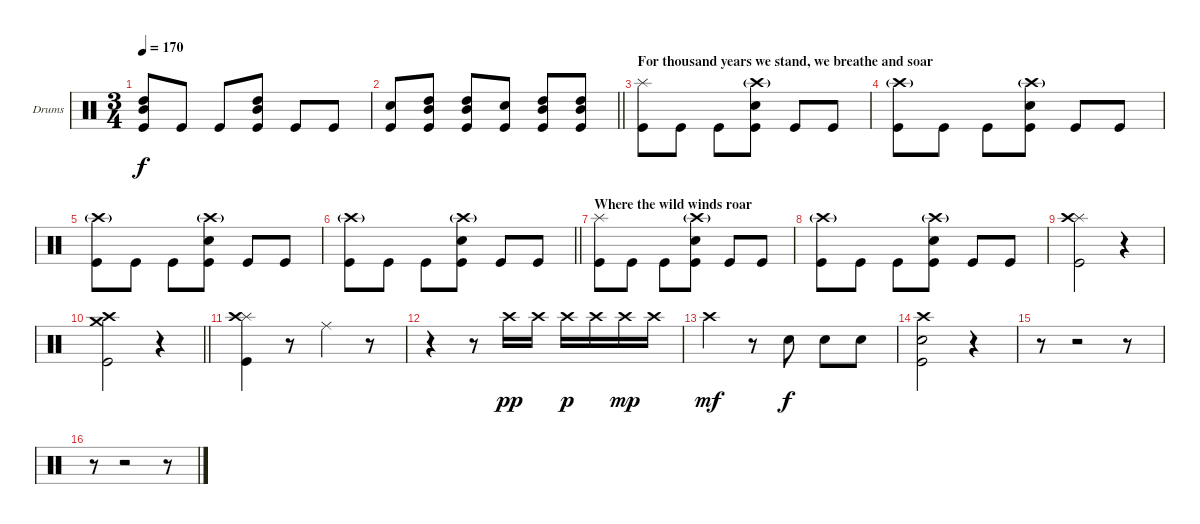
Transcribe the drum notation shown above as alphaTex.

\bracketExtendMode groupsimilarinstruments
\firstSystemTrackNameOrientation horizontal
\otherSystemsTrackNameOrientation horizontal
\track ("Drumkit" "Drums") {instrument percussion}
\staff {score}
\articulation defaults
\ts (3 4)
\tempo 170
\clef neutral
\ks c
("High Tom (hit)" "Mid Tom (hit)" "Kick (hit)").8{dy f} "Kick (hit)".8 "Kick (hit)".8 ("High Tom (hit)" "Mid Tom (hit)" "Kick (hit)").8 "Kick (hit)".8 "Kick (hit)".8 |
\barLineRight lightlight
("Snare (hit) 2" "Kick (hit)").8 ("High Tom (hit)" "Mid Tom (hit)" "Kick (hit)").8 ("High Tom (hit)" "Mid Tom (hit)" "Kick (hit)").8 ("Snare (hit) 2" "Kick (hit)").8 ("High Tom (hit)" "Mid Tom (hit)" "Kick (hit)").8 ("High Tom (hit)" "Mid Tom (hit)" "Kick (hit)").8 |
\section ("" "For thousand years we stand, we breathe and soar")
("Splash (hit)" "Kick (hit)").8 "Kick (hit)".8 "Kick (hit)".8 ("Crash high (hit)"{g} "Snare (hit) 2" "Kick (hit)").8 "Kick (hit)".8 "Kick (hit)".8 |
("Crash high (hit)"{g} "Kick (hit)").8 "Kick (hit)".8 "Kick (hit)".8 ("Crash high (hit)"{g} "Snare (hit) 2" "Kick (hit)").8 "Kick (hit)".8 "Kick (hit)".8 |
("Crash high (hit)"{g} "Kick (hit)").8 "Kick (hit)".8 "Kick (hit)".8 ("Crash high (hit)"{g} "Snare (hit) 2" "Kick (hit)").8 "Kick (hit)".8 "Kick (hit)".8 |
\barLineRight lightlight
("Crash high (hit)"{g} "Kick (hit)").8 "Kick (hit)".8 "Kick (hit)".8 ("Crash high (hit)"{g} "Snare (hit) 2" "Kick (hit)").8 "Kick (hit)".8 "Kick (hit)".8 |
\section ("" "Where the wild winds roar ")
("Splash (hit)" "Kick (hit)").8 "Kick (hit)".8 "Kick (hit)".8 ("Crash high (hit)"{g} "Snare (hit) 2" "Kick (hit)").8 "Kick (hit)".8 "Kick (hit)".8 |
("Crash high (hit)"{g} "Kick (hit)").8 "Kick (hit)".8 "Kick (hit)".8 ("Crash high (hit)"{g} "Snare (hit) 2" "Kick (hit)").8 "Kick (hit)".8 "Kick (hit)".8 |
("Splash (hit)" "Crash high (hit)" "Kick (hit)").2 r.4 |
\barLineRight lightlight
("Crash medium (hit)" "Crash high (hit)" "Kick (hit)").2 r.4 |
("Splash (hit)" "Crash high (hit)" "Kick (hit)").4 r.8 "Ride (middle)".4 r.8 |
r.4 r.8 "Crash high (hit)".16{dy pp} "Crash high (hit)".16 "Crash high (hit)".16{dy p} "Crash high (hit)".16 "Crash high (hit)".16{dy mp} "Crash high (hit)".16 |
"Crash high (hit)".4{dy mf} r.8 "Snare (hit) 2".8{dy f} "Snare (hit) 2".8 "Snare (hit) 2".8 |
("Crash high (hit)" "Snare (hit) 2" "Kick (hit)").2 r.4 |
r.8 r.2 r.8 |
r.8 r.2 r.8
